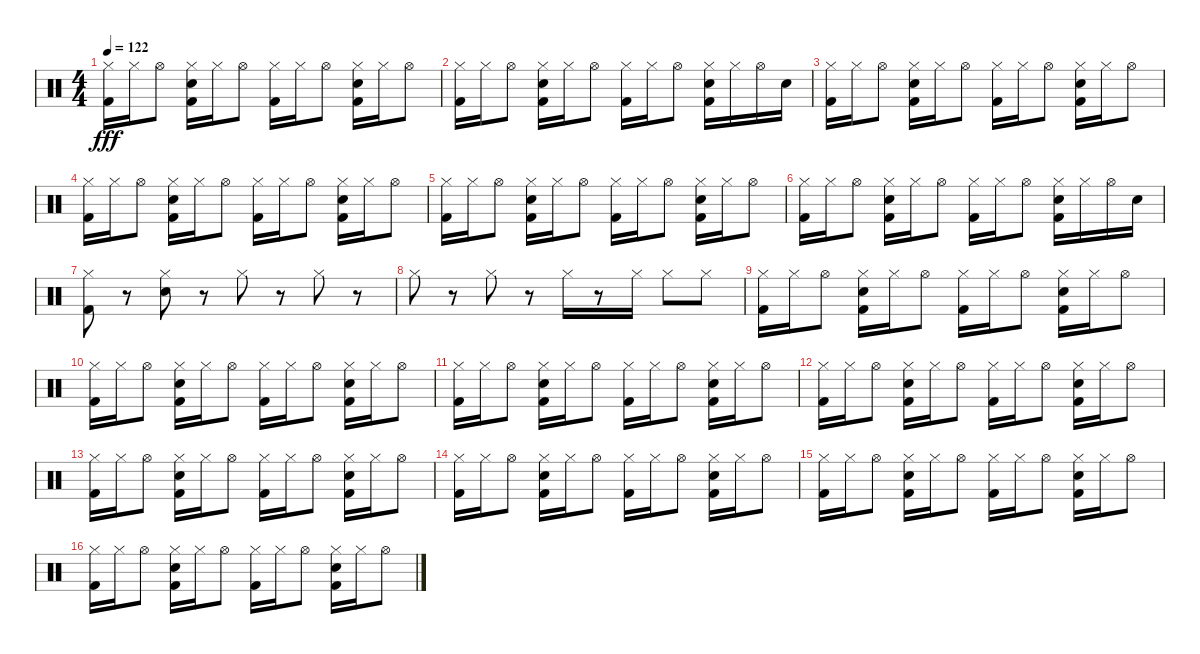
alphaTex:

\track "" {instrument percussion}
\staff {score}
\articulation defaults
\ts (4 4)
\tempo 122
\clef neutral
\ks c
("Kick (hit) 2" "Hi-Hat (closed)").16{dy fff} "Hi-Hat (closed)".16 "Hi-Hat (open)".8 ("Kick (hit) 2" "Snare (hit) 2" "Hi-Hat (closed)").16 "Hi-Hat (closed)".16 "Hi-Hat (open)".8 ("Kick (hit) 2" "Hi-Hat (closed)").16 "Hi-Hat (closed)".16 "Hi-Hat (open)".8 ("Kick (hit) 2" "Snare (hit) 2" "Hi-Hat (closed)").16 "Hi-Hat (closed)".16 "Hi-Hat (open)".8 |
("Kick (hit) 2" "Hi-Hat (closed)").16 "Hi-Hat (closed)".16 "Hi-Hat (open)".8 ("Kick (hit) 2" "Snare (hit) 2" "Hi-Hat (closed)").16 "Hi-Hat (closed)".16 "Hi-Hat (open)".8 ("Kick (hit) 2" "Hi-Hat (closed)").16 "Hi-Hat (closed)".16 "Hi-Hat (open)".8 ("Kick (hit) 2" "Snare (hit) 2" "Hi-Hat (closed)").16 "Hi-Hat (closed)".16 "Hi-Hat (open)".16 "Snare (hit) 2".16 |
("Kick (hit) 2" "Hi-Hat (closed)").16 "Hi-Hat (closed)".16 "Hi-Hat (open)".8 ("Kick (hit) 2" "Snare (hit) 2" "Hi-Hat (closed)").16 "Hi-Hat (closed)".16 "Hi-Hat (open)".8 ("Kick (hit) 2" "Hi-Hat (closed)").16 "Hi-Hat (closed)".16 "Hi-Hat (open)".8 ("Kick (hit) 2" "Snare (hit) 2" "Hi-Hat (closed)").16 "Hi-Hat (closed)".16 "Hi-Hat (open)".8 |
("Kick (hit) 2" "Hi-Hat (closed)").16 "Hi-Hat (closed)".16 "Hi-Hat (open)".8 ("Kick (hit) 2" "Snare (hit) 2" "Hi-Hat (closed)").16 "Hi-Hat (closed)".16 "Hi-Hat (open)".8 ("Kick (hit) 2" "Hi-Hat (closed)").16 "Hi-Hat (closed)".16 "Hi-Hat (open)".8 ("Kick (hit) 2" "Snare (hit) 2" "Hi-Hat (closed)").16 "Hi-Hat (closed)".16 "Hi-Hat (open)".8 |
("Kick (hit) 2" "Hi-Hat (closed)").16 "Hi-Hat (closed)".16 "Hi-Hat (open)".8 ("Kick (hit) 2" "Snare (hit) 2" "Hi-Hat (closed)").16 "Hi-Hat (closed)".16 "Hi-Hat (open)".8 ("Kick (hit) 2" "Hi-Hat (closed)").16 "Hi-Hat (closed)".16 "Hi-Hat (open)".8 ("Kick (hit) 2" "Snare (hit) 2" "Hi-Hat (closed)").16 "Hi-Hat (closed)".16 "Hi-Hat (open)".8 |
("Kick (hit) 2" "Hi-Hat (closed)").16 "Hi-Hat (closed)".16 "Hi-Hat (open)".8 ("Kick (hit) 2" "Snare (hit) 2" "Hi-Hat (closed)").16 "Hi-Hat (closed)".16 "Hi-Hat (open)".8 ("Kick (hit) 2" "Hi-Hat (closed)").16 "Hi-Hat (closed)".16 "Hi-Hat (open)".8 ("Kick (hit) 2" "Snare (hit) 2" "Hi-Hat (closed)").16 "Hi-Hat (closed)".16 "Hi-Hat (open)".16 "Snare (hit) 2".16 |
("Kick (hit) 2" "Hi-Hat (closed)").8 r.8 ("Hand Clap (hit)" "Hi-Hat (closed)").8 r.8 "Hi-Hat (closed)".8 r.8 "Hi-Hat (closed)".8 r.8 |
"Hi-Hat (closed)".8 r.8 "Hi-Hat (closed)".8 r.8 "Hi-Hat (closed)".16 r.8 "Hi-Hat (closed)".16 "Hi-Hat (closed)".8 "Hi-Hat (closed)".8 |
("Kick (hit) 2" "Hi-Hat (closed)").16 "Hi-Hat (closed)".16 "Hi-Hat (open)".8 ("Kick (hit) 2" "Snare (hit) 2" "Hi-Hat (closed)").16 "Hi-Hat (closed)".16 "Hi-Hat (open)".8 ("Kick (hit) 2" "Hi-Hat (closed)").16 "Hi-Hat (closed)".16 "Hi-Hat (open)".8 ("Kick (hit) 2" "Snare (hit) 2" "Hi-Hat (closed)").16 "Hi-Hat (closed)".16 "Hi-Hat (open)".8 |
("Kick (hit) 2" "Hi-Hat (closed)").16 "Hi-Hat (closed)".16 "Hi-Hat (open)".8 ("Kick (hit) 2" "Snare (hit) 2" "Hi-Hat (closed)").16 "Hi-Hat (closed)".16 "Hi-Hat (open)".8 ("Kick (hit) 2" "Hi-Hat (closed)").16 "Hi-Hat (closed)".16 "Hi-Hat (open)".8 ("Kick (hit) 2" "Snare (hit) 2" "Hi-Hat (closed)").16 "Hi-Hat (closed)".16 "Hi-Hat (open)".8 |
("Kick (hit) 2" "Hi-Hat (closed)").16 "Hi-Hat (closed)".16 "Hi-Hat (open)".8 ("Kick (hit) 2" "Snare (hit) 2" "Hi-Hat (closed)").16 "Hi-Hat (closed)".16 "Hi-Hat (open)".8 ("Kick (hit) 2" "Hi-Hat (closed)").16 "Hi-Hat (closed)".16 "Hi-Hat (open)".8 ("Kick (hit) 2" "Snare (hit) 2" "Hi-Hat (closed)").16 "Hi-Hat (closed)".16 "Hi-Hat (open)".8 |
("Kick (hit) 2" "Hi-Hat (closed)").16 "Hi-Hat (closed)".16 "Hi-Hat (open)".8 ("Kick (hit) 2" "Snare (hit) 2" "Hi-Hat (closed)").16 "Hi-Hat (closed)".16 "Hi-Hat (open)".8 ("Kick (hit) 2" "Hi-Hat (closed)").16 "Hi-Hat (closed)".16 "Hi-Hat (open)".8 ("Kick (hit) 2" "Snare (hit) 2" "Hi-Hat (closed)").16 "Hi-Hat (closed)".16 "Hi-Hat (open)".8 |
("Kick (hit) 2" "Hi-Hat (closed)").16 "Hi-Hat (closed)".16 "Hi-Hat (open)".8 ("Kick (hit) 2" "Snare (hit) 2" "Hi-Hat (closed)").16 "Hi-Hat (closed)".16 "Hi-Hat (open)".8 ("Kick (hit) 2" "Hi-Hat (closed)").16 "Hi-Hat (closed)".16 "Hi-Hat (open)".8 ("Kick (hit) 2" "Snare (hit) 2" "Hi-Hat (closed)").16 "Hi-Hat (closed)".16 "Hi-Hat (open)".8 |
("Kick (hit) 2" "Hi-Hat (closed)").16 "Hi-Hat (closed)".16 "Hi-Hat (open)".8 ("Kick (hit) 2" "Snare (hit) 2" "Hi-Hat (closed)").16 "Hi-Hat (closed)".16 "Hi-Hat (open)".8 ("Kick (hit) 2" "Hi-Hat (closed)").16 "Hi-Hat (closed)".16 "Hi-Hat (open)".8 ("Kick (hit) 2" "Snare (hit) 2" "Hi-Hat (closed)").16 "Hi-Hat (closed)".16 "Hi-Hat (open)".8 |
("Kick (hit) 2" "Hi-Hat (closed)").16 "Hi-Hat (closed)".16 "Hi-Hat (open)".8 ("Kick (hit) 2" "Snare (hit) 2" "Hi-Hat (closed)").16 "Hi-Hat (closed)".16 "Hi-Hat (open)".8 ("Kick (hit) 2" "Hi-Hat (closed)").16 "Hi-Hat (closed)".16 "Hi-Hat (open)".8 ("Kick (hit) 2" "Snare (hit) 2" "Hi-Hat (closed)").16 "Hi-Hat (closed)".16 "Hi-Hat (open)".8 |
("Kick (hit) 2" "Hi-Hat (closed)").16 "Hi-Hat (closed)".16 "Hi-Hat (open)".8 ("Kick (hit) 2" "Snare (hit) 2" "Hi-Hat (closed)").16 "Hi-Hat (closed)".16 "Hi-Hat (open)".8 ("Kick (hit) 2" "Hi-Hat (closed)").16 "Hi-Hat (closed)".16 "Hi-Hat (open)".8 ("Kick (hit) 2" "Snare (hit) 2" "Hi-Hat (closed)").16 "Hi-Hat (closed)".16 "Hi-Hat (open)".8
